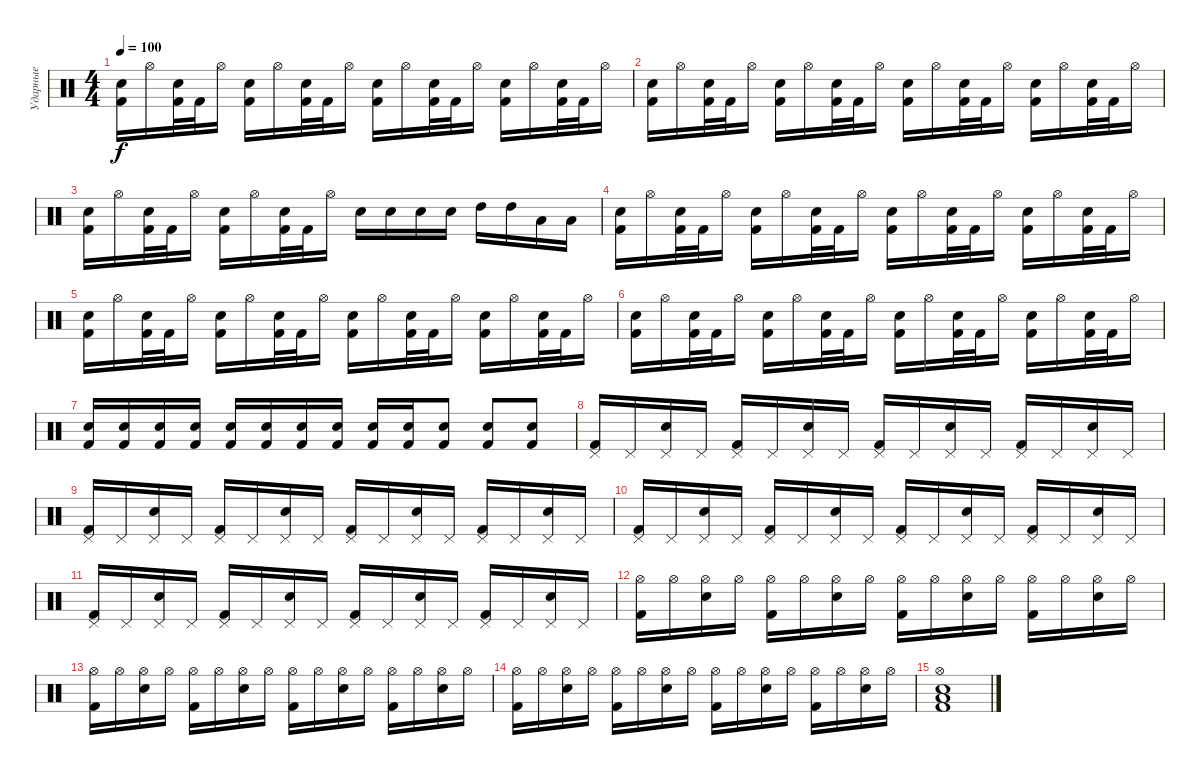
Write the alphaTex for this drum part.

\track ("Ударные" "Ударные") {instrument percussion}
\staff {score}
\articulation defaults
\ts (4 4)
\tempo 100
\clef neutral
\ks c
("Snare (hit) 2" "Kick (hit) 2").16{dy f} "Hi-Hat (open)".16 ("Snare (hit) 2" "Kick (hit) 2").32 "Kick (hit) 2".32 "Hi-Hat (open)".16 ("Snare (hit) 2" "Kick (hit) 2").16 "Hi-Hat (open)".16 ("Snare (hit) 2" "Kick (hit) 2").32 "Kick (hit) 2".32 "Hi-Hat (open)".16 ("Snare (hit) 2" "Kick (hit) 2").16 "Hi-Hat (open)".16 ("Snare (hit) 2" "Kick (hit) 2").32 "Kick (hit) 2".32 "Hi-Hat (open)".16 ("Snare (hit) 2" "Kick (hit) 2").16 "Hi-Hat (open)".16 ("Snare (hit) 2" "Kick (hit) 2").32 "Kick (hit) 2".32 "Hi-Hat (open)".16 |
("Snare (hit) 2" "Kick (hit) 2").16 "Hi-Hat (open)".16 ("Snare (hit) 2" "Kick (hit) 2").32 "Kick (hit) 2".32 "Hi-Hat (open)".16 ("Snare (hit) 2" "Kick (hit) 2").16 "Hi-Hat (open)".16 ("Snare (hit) 2" "Kick (hit) 2").32 "Kick (hit) 2".32 "Hi-Hat (open)".16 ("Snare (hit) 2" "Kick (hit) 2").16 "Hi-Hat (open)".16 ("Snare (hit) 2" "Kick (hit) 2").32 "Kick (hit) 2".32 "Hi-Hat (open)".16 ("Snare (hit) 2" "Kick (hit) 2").16 "Hi-Hat (open)".16 ("Snare (hit) 2" "Kick (hit) 2").32 "Kick (hit) 2".32 "Hi-Hat (open)".16 |
("Snare (hit) 2" "Kick (hit) 2").16 "Hi-Hat (open)".16 ("Snare (hit) 2" "Kick (hit) 2").32 "Kick (hit) 2".32 "Hi-Hat (open)".16 ("Snare (hit) 2" "Kick (hit) 2").16 "Hi-Hat (open)".16 ("Snare (hit) 2" "Kick (hit) 2").32 "Kick (hit) 2".32 "Hi-Hat (open)".16 "Snare (hit) 2".16 "Snare (hit) 2".16 "Snare (hit) 2".16 "Snare (hit) 2".16 "High Tom (hit)".16 "High Tom (hit)".16 "Low Tom (hit)".16 "Low Tom (hit)".16 |
("Snare (hit) 2" "Kick (hit) 2").16 "Hi-Hat (open)".16 ("Snare (hit) 2" "Kick (hit) 2").32 "Kick (hit) 2".32 "Hi-Hat (open)".16 ("Snare (hit) 2" "Kick (hit) 2").16 "Hi-Hat (open)".16 ("Snare (hit) 2" "Kick (hit) 2").32 "Kick (hit) 2".32 "Hi-Hat (open)".16 ("Snare (hit) 2" "Kick (hit) 2").16 "Hi-Hat (open)".16 ("Snare (hit) 2" "Kick (hit) 2").32 "Kick (hit) 2".32 "Hi-Hat (open)".16 ("Snare (hit) 2" "Kick (hit) 2").16 "Hi-Hat (open)".16 ("Snare (hit) 2" "Kick (hit) 2").32 "Kick (hit) 2".32 "Hi-Hat (open)".16 |
("Snare (hit) 2" "Kick (hit) 2").16 "Hi-Hat (open)".16 ("Snare (hit) 2" "Kick (hit) 2").32 "Kick (hit) 2".32 "Hi-Hat (open)".16 ("Snare (hit) 2" "Kick (hit) 2").16 "Hi-Hat (open)".16 ("Snare (hit) 2" "Kick (hit) 2").32 "Kick (hit) 2".32 "Hi-Hat (open)".16 ("Snare (hit) 2" "Kick (hit) 2").16 "Hi-Hat (open)".16 ("Snare (hit) 2" "Kick (hit) 2").32 "Kick (hit) 2".32 "Hi-Hat (open)".16 ("Snare (hit) 2" "Kick (hit) 2").16 "Hi-Hat (open)".16 ("Snare (hit) 2" "Kick (hit) 2").32 "Kick (hit) 2".32 "Hi-Hat (open)".16 |
("Snare (hit) 2" "Kick (hit) 2").16 "Hi-Hat (open)".16 ("Snare (hit) 2" "Kick (hit) 2").32 "Kick (hit) 2".32 "Hi-Hat (open)".16 ("Snare (hit) 2" "Kick (hit) 2").16 "Hi-Hat (open)".16 ("Snare (hit) 2" "Kick (hit) 2").32 "Kick (hit) 2".32 "Hi-Hat (open)".16 ("Snare (hit) 2" "Kick (hit) 2").16 "Hi-Hat (open)".16 ("Snare (hit) 2" "Kick (hit) 2").32 "Kick (hit) 2".32 "Hi-Hat (open)".16 ("Snare (hit) 2" "Kick (hit) 2").16 "Hi-Hat (open)".16 ("Snare (hit) 2" "Kick (hit) 2").32 "Kick (hit) 2".32 "Hi-Hat (open)".16 |
("Snare (hit) 2" "Kick (hit) 2").16 ("Snare (hit) 2" "Kick (hit) 2").16 ("Snare (hit) 2" "Kick (hit) 2").16 ("Snare (hit) 2" "Kick (hit) 2").16 ("Snare (hit) 2" "Kick (hit) 2").16 ("Snare (hit) 2" "Kick (hit) 2").16 ("Snare (hit) 2" "Kick (hit) 2").16 ("Snare (hit) 2" "Kick (hit) 2").16 ("Snare (hit) 2" "Kick (hit) 2").16 ("Snare (hit) 2" "Kick (hit) 2").16 ("Snare (hit) 2" "Kick (hit) 2").8 ("Snare (hit) 2" "Kick (hit) 2").8 ("Snare (hit) 2" "Kick (hit) 2").8 |
("Pedal Hi-Hat (hit)" "Kick (hit) 2").16 "Pedal Hi-Hat (hit)".16 ("Pedal Hi-Hat (hit)" "Snare (hit) 2").16 "Pedal Hi-Hat (hit)".16 ("Pedal Hi-Hat (hit)" "Kick (hit) 2").16 "Pedal Hi-Hat (hit)".16 ("Pedal Hi-Hat (hit)" "Snare (hit) 2").16 "Pedal Hi-Hat (hit)".16 ("Pedal Hi-Hat (hit)" "Kick (hit) 2").16 "Pedal Hi-Hat (hit)".16 ("Pedal Hi-Hat (hit)" "Snare (hit) 2").16 "Pedal Hi-Hat (hit)".16 ("Pedal Hi-Hat (hit)" "Kick (hit) 2").16 "Pedal Hi-Hat (hit)".16 ("Pedal Hi-Hat (hit)" "Snare (hit) 2").16 "Pedal Hi-Hat (hit)".16 |
("Pedal Hi-Hat (hit)" "Kick (hit) 2").16 "Pedal Hi-Hat (hit)".16 ("Pedal Hi-Hat (hit)" "Snare (hit) 2").16 "Pedal Hi-Hat (hit)".16 ("Pedal Hi-Hat (hit)" "Kick (hit) 2").16 "Pedal Hi-Hat (hit)".16 ("Pedal Hi-Hat (hit)" "Snare (hit) 2").16 "Pedal Hi-Hat (hit)".16 ("Pedal Hi-Hat (hit)" "Kick (hit) 2").16 "Pedal Hi-Hat (hit)".16 ("Pedal Hi-Hat (hit)" "Snare (hit) 2").16 "Pedal Hi-Hat (hit)".16 ("Pedal Hi-Hat (hit)" "Kick (hit) 2").16 "Pedal Hi-Hat (hit)".16 ("Pedal Hi-Hat (hit)" "Snare (hit) 2").16 "Pedal Hi-Hat (hit)".16 |
("Pedal Hi-Hat (hit)" "Kick (hit) 2").16 "Pedal Hi-Hat (hit)".16 ("Pedal Hi-Hat (hit)" "Snare (hit) 2").16 "Pedal Hi-Hat (hit)".16 ("Pedal Hi-Hat (hit)" "Kick (hit) 2").16 "Pedal Hi-Hat (hit)".16 ("Pedal Hi-Hat (hit)" "Snare (hit) 2").16 "Pedal Hi-Hat (hit)".16 ("Pedal Hi-Hat (hit)" "Kick (hit) 2").16 "Pedal Hi-Hat (hit)".16 ("Pedal Hi-Hat (hit)" "Snare (hit) 2").16 "Pedal Hi-Hat (hit)".16 ("Pedal Hi-Hat (hit)" "Kick (hit) 2").16 "Pedal Hi-Hat (hit)".16 ("Pedal Hi-Hat (hit)" "Snare (hit) 2").16 "Pedal Hi-Hat (hit)".16 |
("Pedal Hi-Hat (hit)" "Kick (hit) 2").16 "Pedal Hi-Hat (hit)".16 ("Pedal Hi-Hat (hit)" "Snare (hit) 2").16 "Pedal Hi-Hat (hit)".16 ("Pedal Hi-Hat (hit)" "Kick (hit) 2").16 "Pedal Hi-Hat (hit)".16 ("Pedal Hi-Hat (hit)" "Snare (hit) 2").16 "Pedal Hi-Hat (hit)".16 ("Pedal Hi-Hat (hit)" "Kick (hit) 2").16 "Pedal Hi-Hat (hit)".16 ("Pedal Hi-Hat (hit)" "Snare (hit) 2").16 "Pedal Hi-Hat (hit)".16 ("Pedal Hi-Hat (hit)" "Kick (hit) 2").16 "Pedal Hi-Hat (hit)".16 ("Pedal Hi-Hat (hit)" "Snare (hit) 2").16 "Pedal Hi-Hat (hit)".16 |
("Hi-Hat (open)" "Kick (hit) 2").16 "Hi-Hat (open)".16 ("Hi-Hat (open)" "Snare (hit) 2").16 "Hi-Hat (open)".16 ("Hi-Hat (open)" "Kick (hit) 2").16 "Hi-Hat (open)".16 ("Hi-Hat (open)" "Snare (hit) 2").16 "Hi-Hat (open)".16 ("Hi-Hat (open)" "Kick (hit) 2").16 "Hi-Hat (open)".16 ("Hi-Hat (open)" "Snare (hit) 2").16 "Hi-Hat (open)".16 ("Hi-Hat (open)" "Kick (hit) 2").16 "Hi-Hat (open)".16 ("Hi-Hat (open)" "Snare (hit) 2").16 "Hi-Hat (open)".16 |
("Hi-Hat (open)" "Kick (hit) 2").16 "Hi-Hat (open)".16 ("Hi-Hat (open)" "Snare (hit) 2").16 "Hi-Hat (open)".16 ("Hi-Hat (open)" "Kick (hit) 2").16 "Hi-Hat (open)".16 ("Hi-Hat (open)" "Snare (hit) 2").16 "Hi-Hat (open)".16 ("Hi-Hat (open)" "Kick (hit) 2").16 "Hi-Hat (open)".16 ("Hi-Hat (open)" "Snare (hit) 2").16 "Hi-Hat (open)".16 ("Hi-Hat (open)" "Kick (hit) 2").16 "Hi-Hat (open)".16 ("Hi-Hat (open)" "Snare (hit) 2").16 "Hi-Hat (open)".16 |
("Hi-Hat (open)" "Kick (hit) 2").16 "Hi-Hat (open)".16 ("Hi-Hat (open)" "Snare (hit) 2").16 "Hi-Hat (open)".16 ("Hi-Hat (open)" "Kick (hit) 2").16 "Hi-Hat (open)".16 ("Hi-Hat (open)" "Snare (hit) 2").16 "Hi-Hat (open)".16 ("Hi-Hat (open)" "Kick (hit) 2").16 "Hi-Hat (open)".16 ("Hi-Hat (open)" "Snare (hit) 2").16 "Hi-Hat (open)".16 ("Hi-Hat (open)" "Kick (hit) 2").16 "Hi-Hat (open)".16 ("Hi-Hat (open)" "Snare (hit) 2").16 "Hi-Hat (open)".16 |
("Hi-Hat (open)" "Snare (hit) 2" "Low Floor Tom (hit)" "Kick (hit) 2").1
